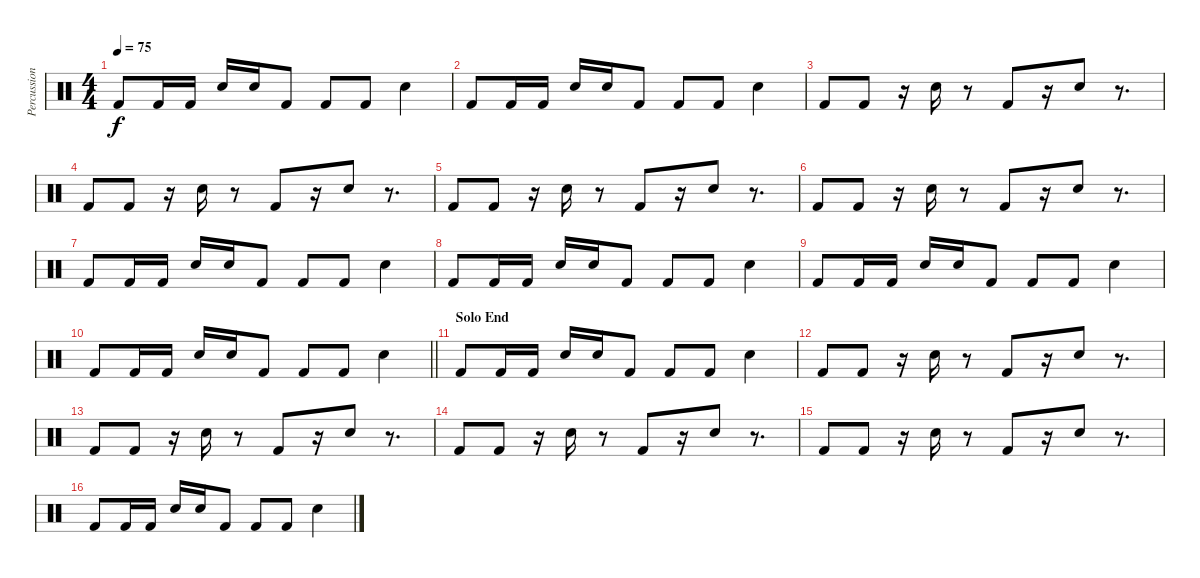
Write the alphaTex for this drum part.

\track ("Percussions" "Percussion") {instrument percussion}
\staff {score}
\articulation defaults
\ts (4 4)
\tempo 75
\clef neutral
\ks c "Kick (hit) 2".8{dy f} "Kick (hit) 2".16 "Kick (hit) 2".16 "Electric Snare (hit)".16 "Electric Snare (hit)".16 "Kick (hit) 2".8 "Kick (hit) 2".8 "Kick (hit) 2".8 "Electric Snare (hit)".4
|
"Kick (hit) 2".8 "Kick (hit) 2".16 "Kick (hit) 2".16 "Electric Snare (hit)".16 "Electric Snare (hit)".16 "Kick (hit) 2".8 "Kick (hit) 2".8 "Kick (hit) 2".8 "Electric Snare (hit)".4 |
"Kick (hit) 2".8 "Kick (hit) 2".8 r.16 "Electric Snare (hit)".16 r.8 "Kick (hit) 2".8 r.16 "Electric Snare (hit)".8 r.8{d} |
"Kick (hit) 2".8 "Kick (hit) 2".8 r.16 "Electric Snare (hit)".16 r.8 "Kick (hit) 2".8 r.16 "Electric Snare (hit)".8 r.8{d} |
"Kick (hit) 2".8 "Kick (hit) 2".8 r.16 "Electric Snare (hit)".16 r.8 "Kick (hit) 2".8 r.16 "Electric Snare (hit)".8 r.8{d} |
"Kick (hit) 2".8 "Kick (hit) 2".8 r.16 "Electric Snare (hit)".16 r.8 "Kick (hit) 2".8 r.16 "Electric Snare (hit)".8 r.8{d} |
"Kick (hit) 2".8 "Kick (hit) 2".16 "Kick (hit) 2".16 "Electric Snare (hit)".16 "Electric Snare (hit)".16 "Kick (hit) 2".8 "Kick (hit) 2".8 "Kick (hit) 2".8 "Electric Snare (hit)".4 |
"Kick (hit) 2".8 "Kick (hit) 2".16 "Kick (hit) 2".16 "Electric Snare (hit)".16 "Electric Snare (hit)".16 "Kick (hit) 2".8 "Kick (hit) 2".8 "Kick (hit) 2".8 "Electric Snare (hit)".4 |
"Kick (hit) 2".8 "Kick (hit) 2".16 "Kick (hit) 2".16 "Electric Snare (hit)".16 "Electric Snare (hit)".16 "Kick (hit) 2".8 "Kick (hit) 2".8 "Kick (hit) 2".8 "Electric Snare (hit)".4 |
\barLineRight lightlight "Kick (hit) 2".8 "Kick (hit) 2".16 "Kick (hit) 2".16 "Electric Snare (hit)".16 "Electric Snare (hit)".16 "Kick (hit) 2".8 "Kick (hit) 2".8 "Kick (hit) 2".8 "Electric Snare (hit)".4
|
\section ("" "Solo End")
"Kick (hit) 2".8 "Kick (hit) 2".16 "Kick (hit) 2".16 "Electric Snare (hit)".16 "Electric Snare (hit)".16 "Kick (hit) 2".8 "Kick (hit) 2".8 "Kick (hit) 2".8 "Electric Snare (hit)".4 |
"Kick (hit) 2".8 "Kick (hit) 2".8 r.16 "Electric Snare (hit)".16 r.8 "Kick (hit) 2".8 r.16 "Electric Snare (hit)".8 r.8{d} |
"Kick (hit) 2".8 "Kick (hit) 2".8 r.16 "Electric Snare (hit)".16 r.8 "Kick (hit) 2".8 r.16 "Electric Snare (hit)".8 r.8{d} |
"Kick (hit) 2".8 "Kick (hit) 2".8 r.16 "Electric Snare (hit)".16 r.8 "Kick (hit) 2".8 r.16 "Electric Snare (hit)".8 r.8{d} |
"Kick (hit) 2".8 "Kick (hit) 2".8 r.16 "Electric Snare (hit)".16 r.8 "Kick (hit) 2".8 r.16 "Electric Snare (hit)".8 r.8{d} |
"Kick (hit) 2".8 "Kick (hit) 2".16 "Kick (hit) 2".16 "Electric Snare (hit)".16 "Electric Snare (hit)".16 "Kick (hit) 2".8 "Kick (hit) 2".8 "Kick (hit) 2".8 "Electric Snare (hit)".4
